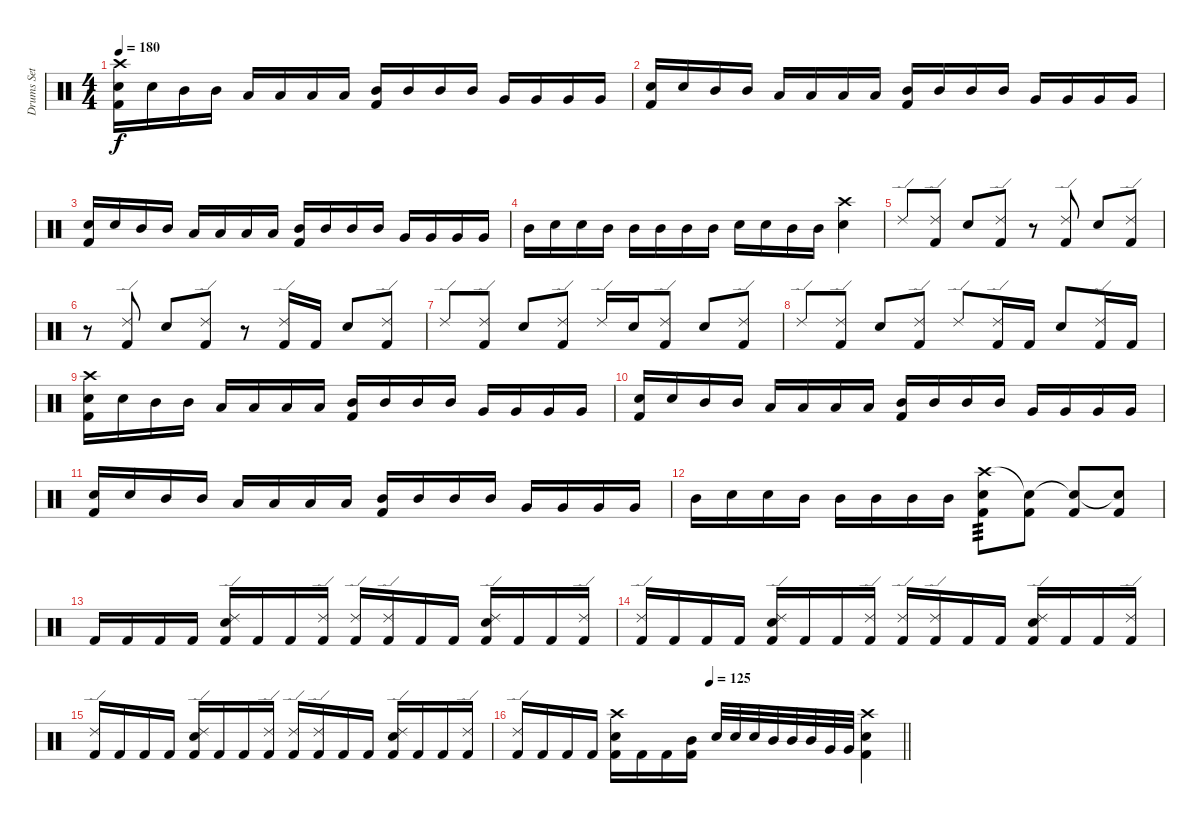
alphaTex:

\track ("Drums Set" "Drums Set") {instrument percussion}
\staff {score}
\articulation defaults
\ts (4 4)
\tempo 180
\clef neutral
\ks c
("Crash high (hit)" "Snare (hit) 2" "Kick (hit) 2").16{dy f} "Snare (hit) 2".16 "Mid Tom (hit)".16 "Mid Tom (hit)".16 "Low Tom (hit)".16 "Low Tom (hit)".16 "Low Tom (hit)".16 "Low Tom (hit)".16 ("Mid Tom (hit)" "Kick (hit) 2").16 "Mid Tom (hit)".16 "Mid Tom (hit)".16 "Mid Tom (hit)".16 "Very Low Tom (hit)".16 "Very Low Tom (hit)".16 "Very Low Tom (hit)".16 "Very Low Tom (hit)".16 |
("Snare (hit) 2" "Kick (hit) 2").16 "Snare (hit) 2".16 "Mid Tom (hit)".16 "Mid Tom (hit)".16 "Low Tom (hit)".16 "Low Tom (hit)".16 "Low Tom (hit)".16 "Low Tom (hit)".16 ("Mid Tom (hit)" "Kick (hit) 2").16 "Mid Tom (hit)".16 "Mid Tom (hit)".16 "Mid Tom (hit)".16 "Very Low Tom (hit)".16 "Very Low Tom (hit)".16 "Very Low Tom (hit)".16 "Very Low Tom (hit)".16 |
("Snare (hit) 2" "Kick (hit) 2").16 "Snare (hit) 2".16 "Mid Tom (hit)".16 "Mid Tom (hit)".16 "Low Tom (hit)".16 "Low Tom (hit)".16 "Low Tom (hit)".16 "Low Tom (hit)".16 ("Mid Tom (hit)" "Kick (hit) 2").16 "Mid Tom (hit)".16 "Mid Tom (hit)".16 "Mid Tom (hit)".16 "Very Low Tom (hit)".16 "Very Low Tom (hit)".16 "Very Low Tom (hit)".16 "Very Low Tom (hit)".16 |
"Mid Tom (hit)".16 "Snare (hit) 2".16 "Snare (hit) 2".16 "Mid Tom (hit)".16 "Mid Tom (hit)".16 "Mid Tom (hit)".16 "Mid Tom (hit)".16 "Mid Tom (hit)".16 "Snare (hit) 2".16 "Snare (hit) 2".16 "Mid Tom (hit)".16 "Mid Tom (hit)".16 ("Crash high (hit)" "Snare (hit) 2").4 |
"Ride (edge) 2".8 ("Ride (edge) 2" "Kick (hit) 2").8 "Snare (hit) 2".8 ("Ride (edge) 2" "Kick (hit) 2").8 r.8 ("Ride (edge) 2" "Kick (hit) 2").8 "Snare (hit) 2".8 ("Ride (edge) 2" "Kick (hit) 2").8 |
r.8 ("Ride (edge) 2" "Kick (hit) 2").8 "Snare (hit) 2".8 ("Ride (edge) 2" "Kick (hit) 2").8 r.8 ("Ride (edge) 2" "Kick (hit) 2").16 "Kick (hit) 2".16 "Snare (hit) 2".8 ("Ride (edge) 2" "Kick (hit) 2").8 |
"Ride (edge) 2".8 ("Ride (edge) 2" "Kick (hit) 2").8 "Snare (hit) 2".8 ("Ride (edge) 2" "Kick (hit) 2").8 "Ride (edge) 2".16 "Snare (hit) 2".16 ("Ride (edge) 2" "Kick (hit) 2").8 "Snare (hit) 2".8 ("Ride (edge) 2" "Kick (hit) 2").8 |
"Ride (edge) 2".8 ("Ride (edge) 2" "Kick (hit) 2").8 "Snare (hit) 2".8 ("Ride (edge) 2" "Kick (hit) 2").8 "Ride (edge) 2".8 ("Ride (edge) 2" "Kick (hit) 2").16 "Kick (hit) 2".16 "Snare (hit) 2".8 ("Ride (edge) 2" "Kick (hit) 2").16 "Kick (hit) 2".16 |
("Crash high (hit)" "Snare (hit) 2" "Kick (hit) 2").16 "Snare (hit) 2".16 "Mid Tom (hit)".16 "Mid Tom (hit)".16 "Low Tom (hit)".16 "Low Tom (hit)".16 "Low Tom (hit)".16 "Low Tom (hit)".16 ("Mid Tom (hit)" "Kick (hit) 2").16 "Mid Tom (hit)".16 "Mid Tom (hit)".16 "Mid Tom (hit)".16 "Very Low Tom (hit)".16 "Very Low Tom (hit)".16 "Very Low Tom (hit)".16 "Very Low Tom (hit)".16 |
("Snare (hit) 2" "Kick (hit) 2").16 "Snare (hit) 2".16 "Mid Tom (hit)".16 "Mid Tom (hit)".16 "Low Tom (hit)".16 "Low Tom (hit)".16 "Low Tom (hit)".16 "Low Tom (hit)".16 ("Mid Tom (hit)" "Kick (hit) 2").16 "Mid Tom (hit)".16 "Mid Tom (hit)".16 "Mid Tom (hit)".16 "Very Low Tom (hit)".16 "Very Low Tom (hit)".16 "Very Low Tom (hit)".16 "Very Low Tom (hit)".16 |
("Snare (hit) 2" "Kick (hit) 2").16 "Snare (hit) 2".16 "Mid Tom (hit)".16 "Mid Tom (hit)".16 "Low Tom (hit)".16 "Low Tom (hit)".16 "Low Tom (hit)".16 "Low Tom (hit)".16 ("Mid Tom (hit)" "Kick (hit) 2").16 "Mid Tom (hit)".16 "Mid Tom (hit)".16 "Mid Tom (hit)".16 "Very Low Tom (hit)".16 "Very Low Tom (hit)".16 "Very Low Tom (hit)".16 "Very Low Tom (hit)".16 |
"Mid Tom (hit)".16 "Snare (hit) 2".16 "Snare (hit) 2".16 "Mid Tom (hit)".16 "Mid Tom (hit)".16 "Mid Tom (hit)".16 "Mid Tom (hit)".16 "Mid Tom (hit)".16 ("Crash high (hit)" "Snare (hit) 2" "Kick (hit) 2").8{tp 3} ("Snare (hit)"{t} "Kick (hit) 2").8 ("Snare (hit)"{t} "Kick (hit) 2").8 ("Snare (hit)"{t} "Kick (hit) 2").8 |
"Kick (hit) 2".16 "Kick (hit) 2".16 "Kick (hit) 2".16 "Kick (hit) 2".16 ("Ride (edge) 2" "Snare (hit) 2" "Kick (hit) 2").16 "Kick (hit) 2".16 "Kick (hit) 2".16 ("Ride (edge) 2" "Kick (hit) 2").16 ("Ride (edge) 2" "Kick (hit) 2").16 ("Ride (edge) 2" "Kick (hit) 2").16 "Kick (hit) 2".16 "Kick (hit) 2".16 ("Ride (edge) 2" "Snare (hit) 2" "Kick (hit) 2").16 "Kick (hit) 2".16 "Kick (hit) 2".16 ("Ride (edge) 2" "Kick (hit) 2").16 |
("Ride (edge) 2" "Kick (hit) 2").16 "Kick (hit) 2".16 "Kick (hit) 2".16 "Kick (hit) 2".16 ("Ride (edge) 2" "Snare (hit) 2" "Kick (hit) 2").16 "Kick (hit) 2".16 "Kick (hit) 2".16 ("Ride (edge) 2" "Kick (hit) 2").16 ("Ride (edge) 2" "Kick (hit) 2").16 ("Ride (edge) 2" "Kick (hit) 2").16 "Kick (hit) 2".16 "Kick (hit) 2".16 ("Ride (edge) 2" "Snare (hit) 2" "Kick (hit) 2").16 "Kick (hit) 2".16 "Kick (hit) 2".16 ("Ride (edge) 2" "Kick (hit) 2").16 |
("Ride (edge) 2" "Kick (hit) 2").16 "Kick (hit) 2".16 "Kick (hit) 2".16 "Kick (hit) 2".16 ("Ride (edge) 2" "Snare (hit) 2" "Kick (hit) 2").16 "Kick (hit) 2".16 "Kick (hit) 2".16 ("Ride (edge) 2" "Kick (hit) 2").16 ("Ride (edge) 2" "Kick (hit) 2").16 ("Ride (edge) 2" "Kick (hit) 2").16 "Kick (hit) 2".16 "Kick (hit) 2".16 ("Ride (edge) 2" "Snare (hit) 2" "Kick (hit) 2").16 "Kick (hit) 2".16 "Kick (hit) 2".16 ("Ride (edge) 2" "Kick (hit) 2").16 |
\tempo (125 0.5)
\barLineRight lightlight
("Ride (edge) 2" "Kick (hit) 2").16 "Kick (hit) 2".16 "Kick (hit) 2".16 "Kick (hit) 2".16 ("Crash high (hit)" "Snare (hit) 2" "Kick (hit) 2").16 "Kick (hit) 2".16 "Kick (hit) 2".16 ("Mid Tom (hit)" "Kick (hit) 2").16 "Snare (hit) 2".32 "Snare (hit) 2".32 "Snare (hit) 2".32 "Mid Tom (hit)".32 "Mid Tom (hit)".32 "Mid Tom (hit)".32 "Very Low Tom (hit)".32 "Very Low Tom (hit)".32 ("Crash high (hit)" "Snare (hit) 2" "Kick (hit) 2").4
